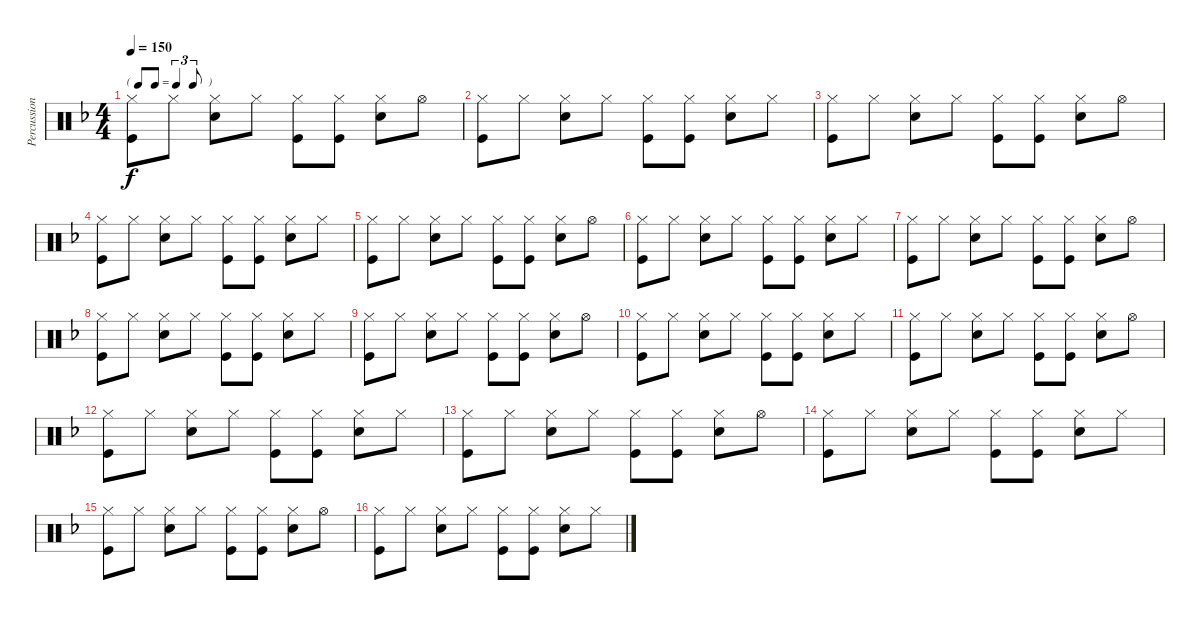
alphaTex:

\track ("Percussion" "Percussion") {instrument percussion}
\staff {score}
\articulation defaults
\ts (4 4)
\tf triplet8th
\tempo 150
\clef neutral
\ks f
("Hi-Hat (closed)" "Kick (hit)").8{dy f} "Hi-Hat (closed)".8 ("Hi-Hat (closed)" "Snare (hit) 2").8 "Hi-Hat (closed)".8 ("Hi-Hat (closed)" "Kick (hit)").8 ("Hi-Hat (closed)" "Kick (hit)").8 ("Hi-Hat (closed)" "Snare (hit) 2").8 "Hi-Hat (open)".8 |
("Hi-Hat (closed)" "Kick (hit)").8 "Hi-Hat (closed)".8 ("Hi-Hat (closed)" "Snare (hit) 2").8 "Hi-Hat (closed)".8 ("Hi-Hat (closed)" "Kick (hit)").8 ("Hi-Hat (closed)" "Kick (hit)").8 ("Hi-Hat (closed)" "Snare (hit) 2").8 "Hi-Hat (closed)".8 |
("Hi-Hat (closed)" "Kick (hit)").8 "Hi-Hat (closed)".8 ("Hi-Hat (closed)" "Snare (hit) 2").8 "Hi-Hat (closed)".8 ("Hi-Hat (closed)" "Kick (hit)").8 ("Hi-Hat (closed)" "Kick (hit)").8 ("Hi-Hat (closed)" "Snare (hit) 2").8 "Hi-Hat (open)".8 |
("Hi-Hat (closed)" "Kick (hit)").8 "Hi-Hat (closed)".8 ("Hi-Hat (closed)" "Snare (hit) 2").8 "Hi-Hat (closed)".8 ("Hi-Hat (closed)" "Kick (hit)").8 ("Hi-Hat (closed)" "Kick (hit)").8 ("Hi-Hat (closed)" "Snare (hit) 2").8 "Hi-Hat (closed)".8 |
("Hi-Hat (closed)" "Kick (hit)").8 "Hi-Hat (closed)".8 ("Hi-Hat (closed)" "Snare (hit) 2").8 "Hi-Hat (closed)".8 ("Hi-Hat (closed)" "Kick (hit)").8 ("Hi-Hat (closed)" "Kick (hit)").8 ("Hi-Hat (closed)" "Snare (hit) 2").8 "Hi-Hat (open)".8 |
("Hi-Hat (closed)" "Kick (hit)").8 "Hi-Hat (closed)".8 ("Hi-Hat (closed)" "Snare (hit) 2").8 "Hi-Hat (closed)".8 ("Hi-Hat (closed)" "Kick (hit)").8 ("Hi-Hat (closed)" "Kick (hit)").8 ("Hi-Hat (closed)" "Snare (hit) 2").8 "Hi-Hat (closed)".8 |
("Hi-Hat (closed)" "Kick (hit)").8 "Hi-Hat (closed)".8 ("Hi-Hat (closed)" "Snare (hit) 2").8 "Hi-Hat (closed)".8 ("Hi-Hat (closed)" "Kick (hit)").8 ("Hi-Hat (closed)" "Kick (hit)").8 ("Hi-Hat (closed)" "Snare (hit) 2").8 "Hi-Hat (open)".8 |
("Hi-Hat (closed)" "Kick (hit)").8 "Hi-Hat (closed)".8 ("Hi-Hat (closed)" "Snare (hit) 2").8 "Hi-Hat (closed)".8 ("Hi-Hat (closed)" "Kick (hit)").8 ("Hi-Hat (closed)" "Kick (hit)").8 ("Hi-Hat (closed)" "Snare (hit) 2").8 "Hi-Hat (closed)".8 |
("Hi-Hat (closed)" "Kick (hit)").8 "Hi-Hat (closed)".8 ("Hi-Hat (closed)" "Snare (hit) 2").8 "Hi-Hat (closed)".8 ("Hi-Hat (closed)" "Kick (hit)").8 ("Hi-Hat (closed)" "Kick (hit)").8 ("Hi-Hat (closed)" "Snare (hit) 2").8 "Hi-Hat (open)".8 |
("Hi-Hat (closed)" "Kick (hit)").8 "Hi-Hat (closed)".8 ("Hi-Hat (closed)" "Snare (hit) 2").8 "Hi-Hat (closed)".8 ("Hi-Hat (closed)" "Kick (hit)").8 ("Hi-Hat (closed)" "Kick (hit)").8 ("Hi-Hat (closed)" "Snare (hit) 2").8 "Hi-Hat (closed)".8 |
("Hi-Hat (closed)" "Kick (hit)").8 "Hi-Hat (closed)".8 ("Hi-Hat (closed)" "Snare (hit) 2").8 "Hi-Hat (closed)".8 ("Hi-Hat (closed)" "Kick (hit)").8 ("Hi-Hat (closed)" "Kick (hit)").8 ("Hi-Hat (closed)" "Snare (hit) 2").8 "Hi-Hat (open)".8 |
("Hi-Hat (closed)" "Kick (hit)").8 "Hi-Hat (closed)".8 ("Hi-Hat (closed)" "Snare (hit) 2").8 "Hi-Hat (closed)".8 ("Hi-Hat (closed)" "Kick (hit)").8 ("Hi-Hat (closed)" "Kick (hit)").8 ("Hi-Hat (closed)" "Snare (hit) 2").8 "Hi-Hat (closed)".8 |
("Hi-Hat (closed)" "Kick (hit)").8 "Hi-Hat (closed)".8 ("Hi-Hat (closed)" "Snare (hit) 2").8 "Hi-Hat (closed)".8 ("Hi-Hat (closed)" "Kick (hit)").8 ("Hi-Hat (closed)" "Kick (hit)").8 ("Hi-Hat (closed)" "Snare (hit) 2").8 "Hi-Hat (open)".8 |
("Hi-Hat (closed)" "Kick (hit)").8 "Hi-Hat (closed)".8 ("Hi-Hat (closed)" "Snare (hit) 2").8 "Hi-Hat (closed)".8 ("Hi-Hat (closed)" "Kick (hit)").8 ("Hi-Hat (closed)" "Kick (hit)").8 ("Hi-Hat (closed)" "Snare (hit) 2").8 "Hi-Hat (closed)".8 |
("Hi-Hat (closed)" "Kick (hit)").8 "Hi-Hat (closed)".8 ("Hi-Hat (closed)" "Snare (hit) 2").8 "Hi-Hat (closed)".8 ("Hi-Hat (closed)" "Kick (hit)").8 ("Hi-Hat (closed)" "Kick (hit)").8 ("Hi-Hat (closed)" "Snare (hit) 2").8 "Hi-Hat (open)".8 |
("Hi-Hat (closed)" "Kick (hit)").8 "Hi-Hat (closed)".8 ("Hi-Hat (closed)" "Snare (hit) 2").8 "Hi-Hat (closed)".8 ("Hi-Hat (closed)" "Kick (hit)").8 ("Hi-Hat (closed)" "Kick (hit)").8 ("Hi-Hat (closed)" "Snare (hit) 2").8 "Hi-Hat (closed)".8
